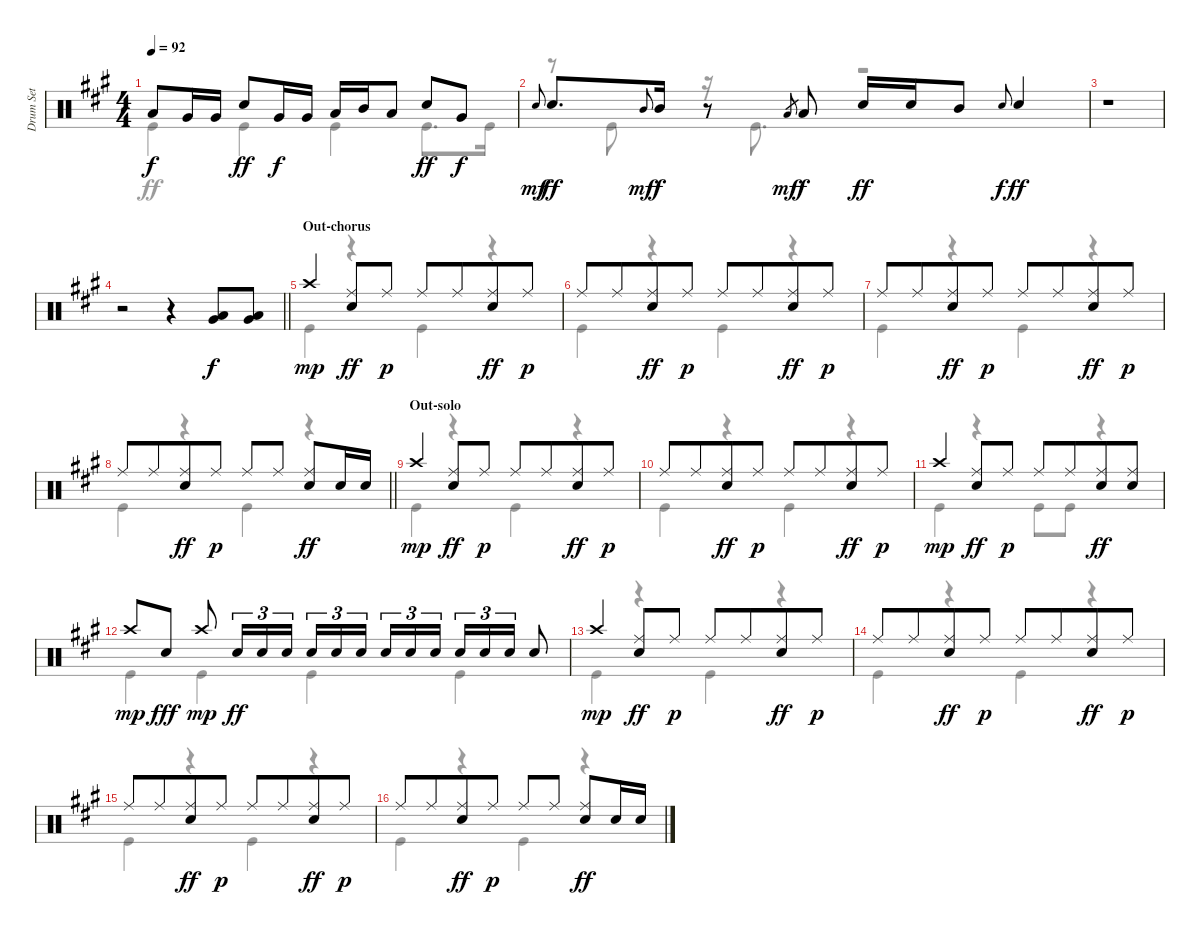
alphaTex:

\track ("Drum Set" "Drum Set") {instrument percussion}
\staff {score}
\articulation defaults
\voice
\ts (4 4)
\tempo 92
\clef neutral
\ks f#minor "Low Tom (hit)".8{dy f} "Very Low Tom (hit)".16 "Very Low Tom (hit)".16 "Electric Snare (hit)".8{dy ff} "Very Low Tom (hit)".16{dy f} "Very Low Tom (hit)".16 "Low Tom (hit)".16 "Mid Tom (hit)".16 "Low Tom (hit)".8 "Electric Snare (hit)".8{dy ff} "Very Low Tom (hit)".8{dy f}
|
"Electric Snare (hit)".8{gr onbeat dy mf} "Electric Snare (hit)".8{d dy ff} "Mid Tom (hit)".8{gr onbeat dy mf} "Mid Tom (hit)".16{dy f} r.8 "Low Tom (hit)".8{gr dy mf} "Low Tom (hit)".8{dy f} "Electric Snare (hit)".16{dy ff} "Electric Snare (hit)".16 "Mid Tom (hit)".8 "Electric Snare (hit)".8{gr onbeat dy f} "Electric Snare (hit)".4{dy ff} |
r.1 |
\barLineRight lightlight
r.2 r.4 ("Low Tom (hit)" "Very Low Tom (hit)").8{dy f beam Up} ("Low Tom (hit)" "Very Low Tom (hit)").8{beam Up} |
\section ("" "Out-chorus")
"Crash high (hit)".4{dy mp} ("Ride (middle)" "Electric Snare (hit)").8{dy ff} "Ride (middle)".8{dy p} "Ride (middle)".8 "Ride (middle)".8{beam merge} ("Ride (middle)" "Electric Snare (hit)").8{dy ff} "Ride (middle)".8{dy p} |
"Ride (middle)".8 "Ride (middle)".8{beam merge} ("Ride (middle)" "Electric Snare (hit)").8{dy ff} "Ride (middle)".8{dy p} "Ride (middle)".8 "Ride (middle)".8{beam merge} ("Ride (middle)" "Electric Snare (hit)").8{dy ff} "Ride (middle)".8{dy p} |
"Ride (middle)".8 "Ride (middle)".8{beam merge} ("Ride (middle)" "Electric Snare (hit)").8{dy ff} "Ride (middle)".8{dy p} "Ride (middle)".8 "Ride (middle)".8{beam merge} ("Ride (middle)" "Electric Snare (hit)").8{dy ff} "Ride (middle)".8{dy p} |
\barLineRight lightlight "Ride (middle)".8 "Ride (middle)".8{beam merge}
("Ride (middle)" "Electric Snare (hit)").8{dy ff} "Ride (middle)".8{dy p} "Ride (middle)".8 "Ride (middle)".8{beam split} ("Ride (middle)" "Electric Snare (hit)").8{dy ff} "Electric Snare (hit)".16 "Electric Snare (hit)".16 |
\section ("" "Out-solo")
"Crash high (hit)".4{dy mp} ("Ride (middle)" "Electric Snare (hit)").8{dy ff} "Ride (middle)".8{dy p} "Ride (middle)".8 "Ride (middle)".8{beam merge} ("Ride (middle)" "Electric Snare (hit)").8{dy ff} "Ride (middle)".8{dy p} |
"Ride (middle)".8 "Ride (middle)".8{beam merge} ("Ride (middle)" "Electric Snare (hit)").8{dy ff} "Ride (middle)".8{dy p} "Ride (middle)".8 "Ride (middle)".8{beam merge} ("Ride (middle)" "Electric Snare (hit)").8{dy ff} "Ride (middle)".8{dy p} |
"Crash high (hit)".4{dy mp} ("Ride (middle)" "Electric Snare (hit)").8{dy ff} "Ride (middle)".8{dy p} "Ride (middle)".8 "Ride (middle)".8{beam merge} ("Ride (middle)" "Electric Snare (hit)").8{dy ff} ("Ride (middle)" "Electric Snare (hit)").8 |
"Crash high (hit)".8{dy mp} "Electric Snare (hit)".8{dy fff} "Crash high (hit)".8{dy mp} "Electric Snare (hit)".16{tu (3 2) dy ff} "Electric Snare (hit)".16{tu (3 2)} "Electric Snare (hit)".16{tu (3 2)} "Electric Snare (hit)".16{tu (3 2)} "Electric Snare (hit)".16{tu (3 2)} "Electric Snare (hit)".16{tu (3 2) beam splitsecondary} "Electric Snare (hit)".16{tu (3 2)} "Electric Snare (hit)".16{tu (3 2)} "Electric Snare (hit)".16{tu (3 2)} "Electric Snare (hit)".16{tu (3 2)} "Electric Snare (hit)".16{tu (3 2)} "Electric Snare (hit)".16{tu (3 2)} "Electric Snare (hit)".8 |
"Crash high (hit)".4{dy mp} ("Ride (middle)" "Electric Snare (hit)").8{dy ff} "Ride (middle)".8{dy p} "Ride (middle)".8 "Ride (middle)".8{beam merge} ("Ride (middle)" "Electric Snare (hit)").8{dy ff} "Ride (middle)".8{dy p} |
"Ride (middle)".8 "Ride (middle)".8{beam merge} ("Ride (middle)" "Electric Snare (hit)").8{dy ff} "Ride (middle)".8{dy p} "Ride (middle)".8 "Ride (middle)".8{beam merge} ("Ride (middle)" "Electric Snare (hit)").8{dy ff} "Ride (middle)".8{dy p} |
"Ride (middle)".8 "Ride (middle)".8{beam merge} ("Ride (middle)" "Electric Snare (hit)").8{dy ff} "Ride (middle)".8{dy p} "Ride (middle)".8 "Ride (middle)".8{beam merge} ("Ride (middle)" "Electric Snare (hit)").8{dy ff} "Ride (middle)".8{dy p} |
"Ride (middle)".8 "Ride (middle)".8{beam merge} ("Ride (middle)" "Electric Snare (hit)").8{dy ff} "Ride (middle)".8{dy p} "Ride (middle)".8 "Ride (middle)".8{beam split} ("Ride (middle)" "Electric Snare (hit)").8{dy ff} "Electric Snare (hit)".16 "Electric Snare (hit)".16
\voice
\clef neutral
\ottava regular
\simile none
\ks f#minor "Kick (hit)".4{dy ff} "Kick (hit)".4 "Kick (hit)".4 "Kick (hit)".8{d} "Kick (hit)".16
|
r.8 "Kick (hit)".8 r.16 "Kick (hit)".8{d} r.2 |
|
\barLineRight lightlight
|
"Kick (hit)".4 r.4 "Kick (hit)".4 r.4 |
"Kick (hit)".4 r.4 "Kick (hit)".4 r.4 |
"Kick (hit)".4 r.4 "Kick (hit)".4 r.4 |
\barLineRight lightlight "Kick (hit)".4
r.4 "Kick (hit)".4 r.4 |
"Kick (hit)".4 r.4 "Kick (hit)".4 r.4 |
"Kick (hit)".4 r.4 "Kick (hit)".4 r.4 |
"Kick (hit)".4 r.4 "Kick (hit)".8 "Kick (hit)".8 r.4 |
"Kick (hit)".4 "Kick (hit)".4 "Kick (hit)".4 "Kick (hit)".4 |
"Kick (hit)".4 r.4 "Kick (hit)".4 r.4 |
"Kick (hit)".4 r.4 "Kick (hit)".4 r.4 |
"Kick (hit)".4 r.4 "Kick (hit)".4 r.4 |
"Kick (hit)".4 r.4 "Kick (hit)".4 r.4
